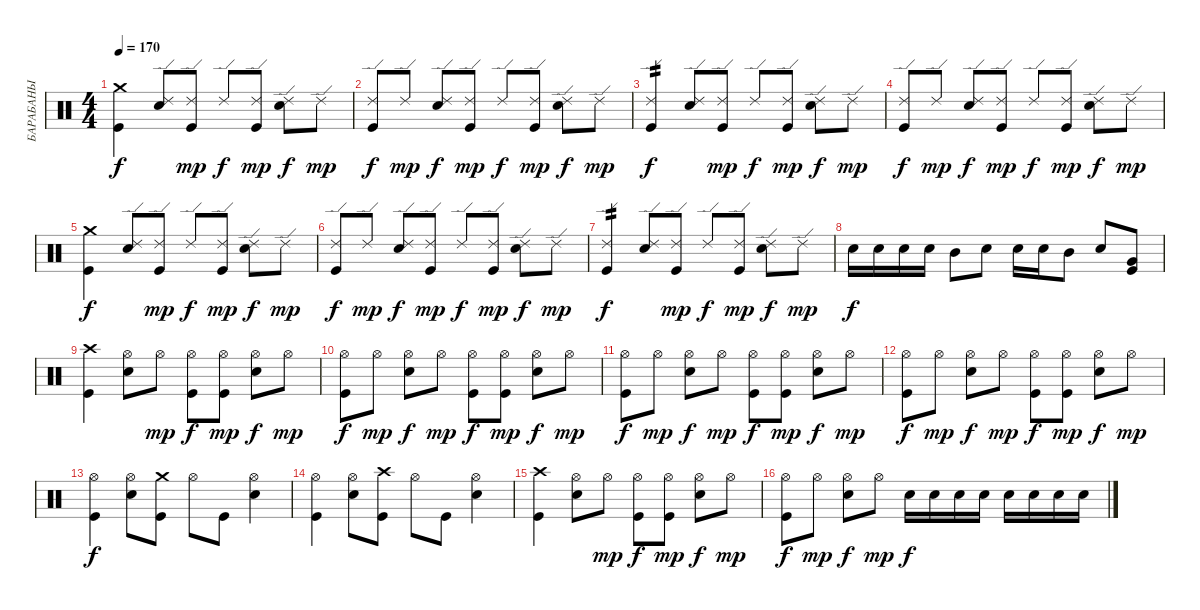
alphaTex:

\track ("БАРАБАНЫ" "БАРАБАНЫ") {instrument percussion}
\staff {score}
\articulation defaults
\ts (4 4)
\tempo 170
\clef neutral
\ks c
("Crash medium (hit)" "Kick (hit)").4{dy f} ("Ride (edge) 2" "Electric Snare (hit)").8 ("Ride (edge) 2" "Kick (hit)").8{dy mp} "Ride (edge) 2".8{dy f} ("Ride (edge) 2" "Kick (hit)").8{dy mp} ("Ride (edge) 2" "Electric Snare (hit)").8{dy f} "Ride (edge) 2".8{dy mp} |
("Ride (edge) 2" "Kick (hit)").8{dy f} "Ride (edge) 2".8{dy mp} ("Ride (edge) 2" "Electric Snare (hit)").8{dy f} ("Ride (edge) 2" "Kick (hit)").8{dy mp} "Ride (edge) 2".8{dy f} ("Ride (edge) 2" "Kick (hit)").8{dy mp} ("Ride (edge) 2" "Electric Snare (hit)").8{dy f} "Ride (edge) 2".8{dy mp} |
("Ride (edge) 2" "Kick (hit)").4{tp 2 dy f} ("Ride (edge) 2" "Electric Snare (hit)").8 ("Ride (edge) 2" "Kick (hit)").8{dy mp} "Ride (edge) 2".8{dy f} ("Ride (edge) 2" "Kick (hit)").8{dy mp} ("Ride (edge) 2" "Electric Snare (hit)").8{dy f} "Ride (edge) 2".8{dy mp} |
("Ride (edge) 2" "Kick (hit)").8{dy f} "Ride (edge) 2".8{dy mp} ("Ride (edge) 2" "Electric Snare (hit)").8{dy f} ("Ride (edge) 2" "Kick (hit)").8{dy mp} "Ride (edge) 2".8{dy f} ("Ride (edge) 2" "Kick (hit)").8{dy mp} ("Ride (edge) 2" "Electric Snare (hit)").8{dy f} "Ride (edge) 2".8{dy mp} |
("Crash medium (hit)" "Kick (hit)").4{dy f} ("Ride (edge) 2" "Electric Snare (hit)").8 ("Ride (edge) 2" "Kick (hit)").8{dy mp} "Ride (edge) 2".8{dy f} ("Ride (edge) 2" "Kick (hit)").8{dy mp} ("Ride (edge) 2" "Electric Snare (hit)").8{dy f} "Ride (edge) 2".8{dy mp} |
("Ride (edge) 2" "Kick (hit)").8{dy f} "Ride (edge) 2".8{dy mp} ("Ride (edge) 2" "Electric Snare (hit)").8{dy f} ("Ride (edge) 2" "Kick (hit)").8{dy mp} "Ride (edge) 2".8{dy f} ("Ride (edge) 2" "Kick (hit)").8{dy mp} ("Ride (edge) 2" "Electric Snare (hit)").8{dy f} "Ride (edge) 2".8{dy mp} |
("Ride (edge) 2" "Kick (hit)").4{tp 2 dy f} ("Ride (edge) 2" "Electric Snare (hit)").8 ("Ride (edge) 2" "Kick (hit)").8{dy mp} "Ride (edge) 2".8{dy f} ("Ride (edge) 2" "Kick (hit)").8{dy mp} ("Ride (edge) 2" "Electric Snare (hit)").8{dy f} "Ride (edge) 2".8{dy mp} |
"Electric Snare (hit)".16{dy f} "Electric Snare (hit)".16 "Electric Snare (hit)".16 "Electric Snare (hit)".16 "Mid Tom (hit)".8 "Electric Snare (hit)".8 "Electric Snare (hit)".16 "Electric Snare (hit)".16 "Mid Tom (hit)".8 "Electric Snare (hit)".8 ("Very Low Tom (hit)" "Kick (hit)").8 |
("Crash high (hit)" "Kick (hit)").4 ("Hi-Hat (open)" "Electric Snare (hit)").8 "Hi-Hat (open)".8{dy mp} ("Hi-Hat (open)" "Kick (hit)").8{dy f} ("Hi-Hat (open)" "Kick (hit)").8{dy mp} ("Hi-Hat (open)" "Electric Snare (hit)").8{dy f} "Hi-Hat (open)".8{dy mp} |
("Hi-Hat (open)" "Kick (hit)").8{dy f} "Hi-Hat (open)".8{dy mp} ("Hi-Hat (open)" "Electric Snare (hit)").8{dy f} "Hi-Hat (open)".8{dy mp} ("Hi-Hat (open)" "Kick (hit)").8{dy f} ("Hi-Hat (open)" "Kick (hit)").8{dy mp} ("Hi-Hat (open)" "Electric Snare (hit)").8{dy f} "Hi-Hat (open)".8{dy mp} |
("Hi-Hat (open)" "Kick (hit)").8{dy f} "Hi-Hat (open)".8{dy mp} ("Hi-Hat (open)" "Electric Snare (hit)").8{dy f} "Hi-Hat (open)".8{dy mp} ("Hi-Hat (open)" "Kick (hit)").8{dy f} ("Hi-Hat (open)" "Kick (hit)").8{dy mp} ("Hi-Hat (open)" "Electric Snare (hit)").8{dy f} "Hi-Hat (open)".8{dy mp} |
("Hi-Hat (open)" "Kick (hit)").8{dy f} "Hi-Hat (open)".8{dy mp} ("Hi-Hat (open)" "Electric Snare (hit)").8{dy f} "Hi-Hat (open)".8{dy mp} ("Hi-Hat (open)" "Kick (hit)").8{dy f} ("Hi-Hat (open)" "Kick (hit)").8{dy mp} ("Hi-Hat (open)" "Electric Snare (hit)").8{dy f} "Hi-Hat (open)".8{dy mp} |
("Hi-Hat (open)" "Kick (hit)").4{dy f} ("Hi-Hat (open)" "Electric Snare (hit)").8 ("Crash medium (hit)" "Kick (hit)").8 "Hi-Hat (open)".8 "Kick (hit)".8 ("Hi-Hat (open)" "Electric Snare (hit)").4 |
("Hi-Hat (open)" "Kick (hit)").4 ("Hi-Hat (open)" "Electric Snare (hit)").8 ("Crash high (hit)" "Kick (hit)").8 "Hi-Hat (open)".8 "Kick (hit)".8 ("Hi-Hat (open)" "Electric Snare (hit)").4 |
("Crash high (hit)" "Kick (hit)").4 ("Hi-Hat (open)" "Electric Snare (hit)").8 "Hi-Hat (open)".8{dy mp} ("Hi-Hat (open)" "Kick (hit)").8{dy f} ("Hi-Hat (open)" "Kick (hit)").8{dy mp} ("Hi-Hat (open)" "Electric Snare (hit)").8{dy f} "Hi-Hat (open)".8{dy mp} |
("Hi-Hat (open)" "Kick (hit)").8{dy f} "Hi-Hat (open)".8{dy mp} ("Hi-Hat (open)" "Electric Snare (hit)").8{dy f} "Hi-Hat (open)".8{dy mp} "Electric Snare (hit)".16{dy f} "Electric Snare (hit)".16 "Electric Snare (hit)".16 "Electric Snare (hit)".16 "Electric Snare (hit)".16 "Electric Snare (hit)".16 "Electric Snare (hit)".16 "Electric Snare (hit)".16
